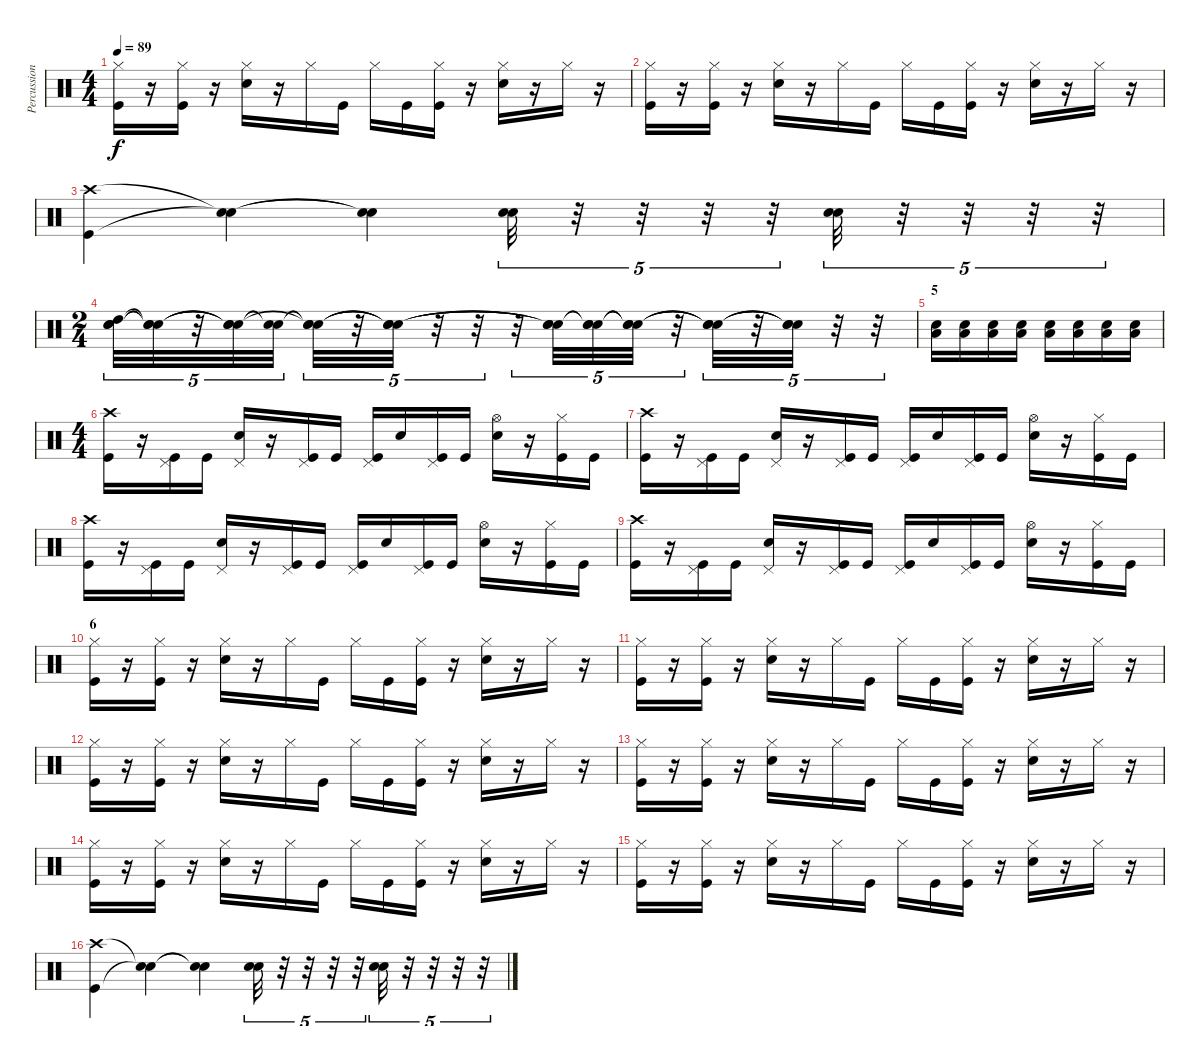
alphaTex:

\track ("Percussions" "Percussion") {instrument percussion}
\staff {score}
\articulation defaults
\ts (4 4)
\tempo 89
\clef neutral
\ks c
("Hi-Hat (closed)" "Kick (hit)").16{dy f} r.16 ("Hi-Hat (closed)" "Kick (hit)").16 r.16 ("Hi-Hat (closed)" "Electric Snare (hit)").16 r.16 "Hi-Hat (closed)".16 "Kick (hit)".16 "Hi-Hat (closed)".16 "Kick (hit)".16 ("Hi-Hat (closed)" "Kick (hit)").16 r.16 ("Hi-Hat (closed)" "Electric Snare (hit)").16 r.16 "Hi-Hat (closed)".16 r.16 |
("Hi-Hat (closed)" "Kick (hit)").16 r.16 ("Hi-Hat (closed)" "Kick (hit)").16 r.16 ("Hi-Hat (closed)" "Electric Snare (hit)").16 r.16 "Hi-Hat (closed)".16 "Kick (hit)".16 "Hi-Hat (closed)".16 "Kick (hit)".16 ("Hi-Hat (closed)" "Kick (hit)").16 r.16 ("Hi-Hat (closed)" "Electric Snare (hit)").16 r.16 "Hi-Hat (closed)".16 r.16 |
("Crash high (hit)" "Kick (hit)").4 ("Snare (hit)"{t} "Snare (hit)"{t}).4 ("Snare (hit)"{t} "Snare (hit)"{t}).4 ("Snare (hit) 2" "Electric Snare (hit)").32{tu (5 4) bd 60} r.32{tu (5 4)} r.32{tu (5 4)} r.32{tu (5 4)} r.32{tu (5 4)} ("Electric Snare (hit)" "Snare (hit) 2").32{tu (5 4) bu 240} r.32{tu (5 4)} r.32{tu (5 4)} r.32{tu (5 4)} r.32{tu (5 4)} |
\ts (2 4)
("Snare (hit) 2" "High Tom (hit)" "Electric Snare (hit)").32{tu (5 4)} ("Snare (hit)"{t} "Snare (hit)"{t} "Snare (hit)"{t}).32{tu (5 4)} r.32{tu (5 4)} ("Snare (hit)"{t} "Snare (hit)"{t} "Snare (hit)"{t}).32{tu (5 4)} ("Snare (hit)"{t} "Snare (hit)"{t}).32{tu (5 4)} ("Snare (hit)"{t} "Snare (hit)"{t} "Snare (hit)"{t}).32{tu (5 4)} r.32{tu (5 4)} ("Snare (hit)"{t} "Snare (hit)"{t} "Snare (hit)"{t}).32{tu (5 4)} r.32{tu (5 4)} r.32{tu (5 4)} r.32{tu (5 4)} ("Snare (hit)"{t} "Snare (hit)"{t} "Snare (hit)"{t}).32{tu (5 4)} ("Snare (hit)"{t} "Snare (hit)"{t} "Electric Snare (hit)").32{tu (5 4)} ("Snare (hit)"{t} "Snare (hit)"{t} "Snare (hit)"{t}).32{tu (5 4)} r.32{tu (5 4)} ("Snare (hit)"{t} "Snare (hit)"{t} "Snare (hit)"{t}).32{tu (5 4)} r.32{tu (5 4)} ("Snare (hit)"{t} "Snare (hit)"{t} "Snare (hit)"{t}).32{tu (5 4)} r.32{tu (5 4)} r.32{tu (5 4)} |
\section ("" "5")
("Low Floor Tom (hit)" "Electric Snare (hit)").16 ("Low Floor Tom (hit)" "Electric Snare (hit)").16 ("Low Floor Tom (hit)" "Electric Snare (hit)").16 ("Low Floor Tom (hit)" "Electric Snare (hit)").16 ("Low Floor Tom (hit)" "Electric Snare (hit)").16 ("Low Floor Tom (hit)" "Electric Snare (hit)").16 ("Low Floor Tom (hit)" "Electric Snare (hit)").16 ("Low Floor Tom (hit)" "Electric Snare (hit)").16 |
\ts (4 4)
("Crash high (hit)" "Kick (hit)").16 r.16 ("Pedal Hi-Hat (hit)" "Kick (hit)").16 "Kick (hit)".16 ("Pedal Hi-Hat (hit)" "Electric Snare (hit)").16 r.16 ("Pedal Hi-Hat (hit)" "Kick (hit)").16 "Kick (hit)".16 ("Pedal Hi-Hat (hit)" "Kick (hit)").16 "Electric Snare (hit)".16 ("Pedal Hi-Hat (hit)" "Kick (hit)").16 "Kick (hit)".16 ("Hi-Hat (open)" "Electric Snare (hit)").16 r.16 ("Hi-Hat (closed)" "Kick (hit)").16 "Kick (hit)".16 |
("Crash high (hit)" "Kick (hit)").16 r.16 ("Pedal Hi-Hat (hit)" "Kick (hit)").16 "Kick (hit)".16 ("Pedal Hi-Hat (hit)" "Electric Snare (hit)").16 r.16 ("Pedal Hi-Hat (hit)" "Kick (hit)").16 "Kick (hit)".16 ("Pedal Hi-Hat (hit)" "Kick (hit)").16 "Electric Snare (hit)".16 ("Pedal Hi-Hat (hit)" "Kick (hit)").16 "Kick (hit)".16 ("Hi-Hat (open)" "Electric Snare (hit)").16 r.16 ("Hi-Hat (closed)" "Kick (hit)").16 "Kick (hit)".16 |
("Crash high (hit)" "Kick (hit)").16 r.16 ("Pedal Hi-Hat (hit)" "Kick (hit)").16 "Kick (hit)".16 ("Pedal Hi-Hat (hit)" "Electric Snare (hit)").16 r.16 ("Pedal Hi-Hat (hit)" "Kick (hit)").16 "Kick (hit)".16 ("Pedal Hi-Hat (hit)" "Kick (hit)").16 "Electric Snare (hit)".16 ("Pedal Hi-Hat (hit)" "Kick (hit)").16 "Kick (hit)".16 ("Hi-Hat (open)" "Electric Snare (hit)").16 r.16 ("Hi-Hat (closed)" "Kick (hit)").16 "Kick (hit)".16 |
("Crash high (hit)" "Kick (hit)").16 r.16 ("Pedal Hi-Hat (hit)" "Kick (hit)").16 "Kick (hit)".16 ("Pedal Hi-Hat (hit)" "Electric Snare (hit)").16 r.16 ("Pedal Hi-Hat (hit)" "Kick (hit)").16 "Kick (hit)".16 ("Pedal Hi-Hat (hit)" "Kick (hit)").16 "Electric Snare (hit)".16 ("Pedal Hi-Hat (hit)" "Kick (hit)").16 "Kick (hit)".16 ("Hi-Hat (open)" "Electric Snare (hit)").16 r.16 ("Hi-Hat (closed)" "Kick (hit)").16 "Kick (hit)".16 |
\section ("" "6")
("Hi-Hat (closed)" "Kick (hit)").16 r.16 ("Hi-Hat (closed)" "Kick (hit)").16 r.16 ("Hi-Hat (closed)" "Electric Snare (hit)").16 r.16 "Hi-Hat (closed)".16 "Kick (hit)".16 "Hi-Hat (closed)".16 "Kick (hit)".16 ("Hi-Hat (closed)" "Kick (hit)").16 r.16 ("Hi-Hat (closed)" "Electric Snare (hit)").16 r.16 "Hi-Hat (closed)".16 r.16 |
("Hi-Hat (closed)" "Kick (hit)").16 r.16 ("Hi-Hat (closed)" "Kick (hit)").16 r.16 ("Hi-Hat (closed)" "Electric Snare (hit)").16 r.16 "Hi-Hat (closed)".16 "Kick (hit)".16 "Hi-Hat (closed)".16 "Kick (hit)".16 ("Hi-Hat (closed)" "Kick (hit)").16 r.16 ("Hi-Hat (closed)" "Electric Snare (hit)").16 r.16 "Hi-Hat (closed)".16 r.16 |
("Hi-Hat (closed)" "Kick (hit)").16 r.16 ("Hi-Hat (closed)" "Kick (hit)").16 r.16 ("Hi-Hat (closed)" "Electric Snare (hit)").16 r.16 "Hi-Hat (closed)".16 "Kick (hit)".16 "Hi-Hat (closed)".16 "Kick (hit)".16 ("Hi-Hat (closed)" "Kick (hit)").16 r.16 ("Hi-Hat (closed)" "Electric Snare (hit)").16 r.16 "Hi-Hat (closed)".16 r.16 |
("Hi-Hat (closed)" "Kick (hit)").16 r.16 ("Hi-Hat (closed)" "Kick (hit)").16 r.16 ("Hi-Hat (closed)" "Electric Snare (hit)").16 r.16 "Hi-Hat (closed)".16 "Kick (hit)".16 "Hi-Hat (closed)".16 "Kick (hit)".16 ("Hi-Hat (closed)" "Kick (hit)").16 r.16 ("Hi-Hat (closed)" "Electric Snare (hit)").16 r.16 "Hi-Hat (closed)".16 r.16 |
("Hi-Hat (closed)" "Kick (hit)").16 r.16 ("Hi-Hat (closed)" "Kick (hit)").16 r.16 ("Hi-Hat (closed)" "Electric Snare (hit)").16 r.16 "Hi-Hat (closed)".16 "Kick (hit)".16 "Hi-Hat (closed)".16 "Kick (hit)".16 ("Hi-Hat (closed)" "Kick (hit)").16 r.16 ("Hi-Hat (closed)" "Electric Snare (hit)").16 r.16 "Hi-Hat (closed)".16 r.16 |
("Hi-Hat (closed)" "Kick (hit)").16 r.16 ("Hi-Hat (closed)" "Kick (hit)").16 r.16 ("Hi-Hat (closed)" "Electric Snare (hit)").16 r.16 "Hi-Hat (closed)".16 "Kick (hit)".16 "Hi-Hat (closed)".16 "Kick (hit)".16 ("Hi-Hat (closed)" "Kick (hit)").16 r.16 ("Hi-Hat (closed)" "Electric Snare (hit)").16 r.16 "Hi-Hat (closed)".16 r.16 |
("Crash high (hit)" "Kick (hit)").4 ("Snare (hit)"{t} "Snare (hit)"{t}).4 ("Snare (hit)"{t} "Snare (hit)"{t}).4 ("Snare (hit) 2" "Electric Snare (hit)").32{tu (5 4) bd 60} r.32{tu (5 4)} r.32{tu (5 4)} r.32{tu (5 4)} r.32{tu (5 4)} ("Electric Snare (hit)" "Snare (hit) 2").32{tu (5 4) bu 240} r.32{tu (5 4)} r.32{tu (5 4)} r.32{tu (5 4)} r.32{tu (5 4)}
